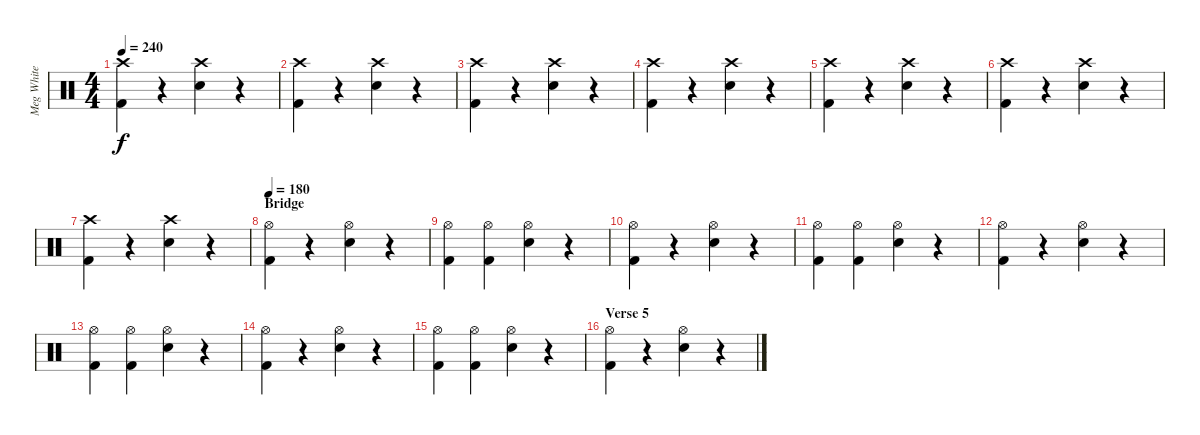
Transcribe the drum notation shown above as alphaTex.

\track ("Meg White" "Meg White") {instrument percussion}
\staff {score}
\articulation defaults
\ts (4 4)
\tempo 240
\clef neutral
\ks c
("Crash high (hit)" "Kick (hit) 2").4{dy f} r.4 ("Crash high (hit)" "Snare (hit) 2").4 r.4 |
("Crash high (hit)" "Kick (hit) 2").4 r.4 ("Crash high (hit)" "Snare (hit) 2").4 r.4 |
("Crash high (hit)" "Kick (hit) 2").4 r.4 ("Crash high (hit)" "Snare (hit) 2").4 r.4 |
("Crash high (hit)" "Kick (hit) 2").4 r.4 ("Crash high (hit)" "Snare (hit) 2").4 r.4 |
("Crash high (hit)" "Kick (hit) 2").4 r.4 ("Crash high (hit)" "Snare (hit) 2").4 r.4 |
("Crash high (hit)" "Kick (hit) 2").4 r.4 ("Crash high (hit)" "Snare (hit) 2").4 r.4 |
("Crash high (hit)" "Kick (hit) 2").4 r.4 ("Crash high (hit)" "Snare (hit) 2").4 r.4 |
\section ("" "Bridge")
\tempo 180
("Hi-Hat (open)" "Kick (hit) 2").4 r.4 ("Hi-Hat (open)" "Snare (hit) 2").4 r.4 |
("Hi-Hat (open)" "Kick (hit) 2").4 ("Hi-Hat (open)" "Kick (hit) 2").4 ("Hi-Hat (open)" "Snare (hit) 2").4 r.4 |
("Hi-Hat (open)" "Kick (hit) 2").4 r.4 ("Hi-Hat (open)" "Snare (hit) 2").4 r.4 |
("Hi-Hat (open)" "Kick (hit) 2").4 ("Hi-Hat (open)" "Kick (hit) 2").4 ("Hi-Hat (open)" "Snare (hit) 2").4 r.4 |
("Hi-Hat (open)" "Kick (hit) 2").4 r.4 ("Hi-Hat (open)" "Snare (hit) 2").4 r.4 |
("Hi-Hat (open)" "Kick (hit) 2").4 ("Hi-Hat (open)" "Kick (hit) 2").4 ("Hi-Hat (open)" "Snare (hit) 2").4 r.4 |
("Hi-Hat (open)" "Kick (hit) 2").4 r.4 ("Hi-Hat (open)" "Snare (hit) 2").4 r.4 |
("Hi-Hat (open)" "Kick (hit) 2").4 ("Hi-Hat (open)" "Kick (hit) 2").4 ("Hi-Hat (open)" "Snare (hit) 2").4 r.4 |
\section ("" "Verse 5")
("Hi-Hat (open)" "Kick (hit) 2").4 r.4 ("Hi-Hat (open)" "Snare (hit) 2").4 r.4
